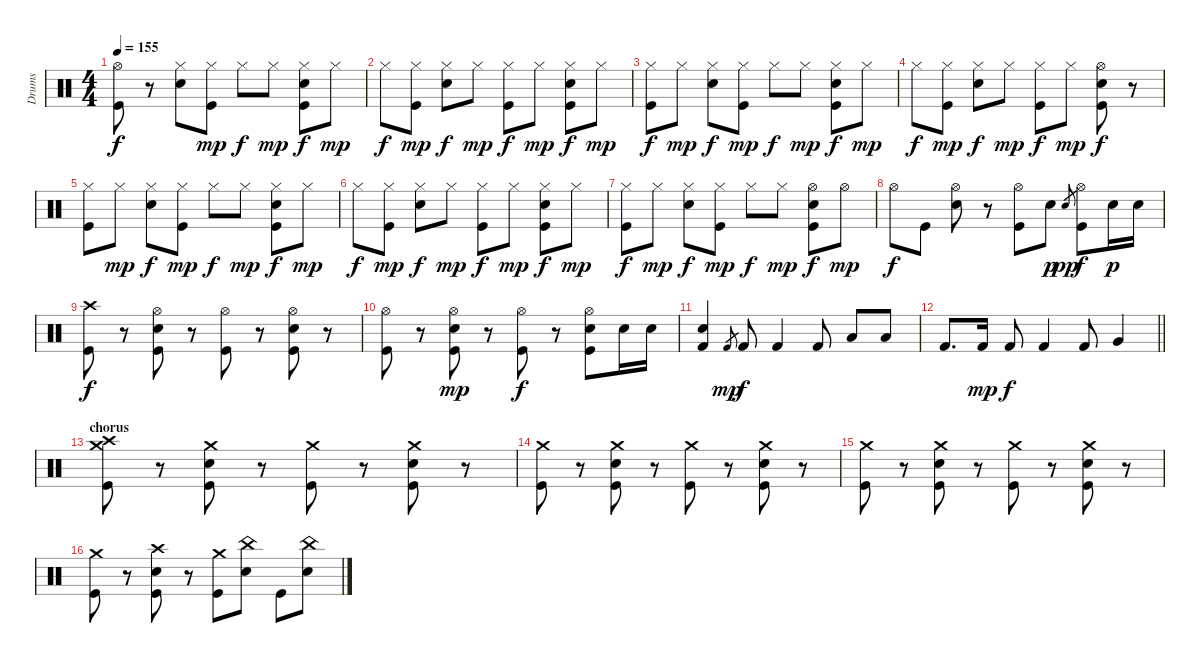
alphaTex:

\track ("Drums" "Drums") {instrument percussion}
\staff {score}
\articulation defaults
\ts (4 4)
\tempo 155
\clef neutral
\ks c
("Hi-Hat (open)" "Kick (hit)").8{dy f} r.8 ("Hi-Hat (closed)" "Electric Snare (hit)").8 ("Hi-Hat (closed)" "Kick (hit)").8{dy mp} "Hi-Hat (closed)".8{dy f} "Hi-Hat (closed)".8{dy mp} ("Hi-Hat (closed)" "Electric Snare (hit)" "Kick (hit)").8{dy f} "Hi-Hat (closed)".8{dy mp} |
"Hi-Hat (closed)".8{dy f} ("Hi-Hat (closed)" "Kick (hit)").8{dy mp} ("Hi-Hat (closed)" "Electric Snare (hit)").8{dy f} "Hi-Hat (closed)".8{dy mp} ("Hi-Hat (closed)" "Kick (hit)").8{dy f} "Hi-Hat (closed)".8{dy mp} ("Hi-Hat (closed)" "Electric Snare (hit)" "Kick (hit)").8{dy f} "Hi-Hat (closed)".8{dy mp} |
("Hi-Hat (closed)" "Kick (hit)").8{dy f} "Hi-Hat (closed)".8{dy mp} ("Hi-Hat (closed)" "Electric Snare (hit)").8{dy f} ("Hi-Hat (closed)" "Kick (hit)").8{dy mp} "Hi-Hat (closed)".8{dy f} "Hi-Hat (closed)".8{dy mp} ("Hi-Hat (closed)" "Electric Snare (hit)" "Kick (hit)").8{dy f} "Hi-Hat (closed)".8{dy mp} |
"Hi-Hat (closed)".8{dy f} ("Hi-Hat (closed)" "Kick (hit)").8{dy mp} ("Hi-Hat (closed)" "Electric Snare (hit)").8{dy f} "Hi-Hat (closed)".8{dy mp} ("Hi-Hat (closed)" "Kick (hit)").8{dy f} "Hi-Hat (closed)".8{dy mp} ("Hi-Hat (open)" "Electric Snare (hit)" "Kick (hit)").8{dy f} r.8 |
("Hi-Hat (closed)" "Kick (hit)").8 "Hi-Hat (closed)".8{dy mp} ("Hi-Hat (closed)" "Electric Snare (hit)").8{dy f} ("Hi-Hat (closed)" "Kick (hit)").8{dy mp} "Hi-Hat (closed)".8{dy f} "Hi-Hat (closed)".8{dy mp} ("Hi-Hat (closed)" "Electric Snare (hit)" "Kick (hit)").8{dy f} "Hi-Hat (closed)".8{dy mp} |
"Hi-Hat (closed)".8{dy f} ("Hi-Hat (closed)" "Kick (hit)").8{dy mp} ("Hi-Hat (closed)" "Electric Snare (hit)").8{dy f} "Hi-Hat (closed)".8{dy mp} ("Hi-Hat (closed)" "Kick (hit)").8{dy f} "Hi-Hat (closed)".8{dy mp} ("Hi-Hat (closed)" "Electric Snare (hit)" "Kick (hit)").8{dy f} "Hi-Hat (closed)".8{dy mp} |
("Hi-Hat (closed)" "Kick (hit)").8{dy f} "Hi-Hat (closed)".8{dy mp} ("Hi-Hat (closed)" "Electric Snare (hit)").8{dy f} ("Hi-Hat (closed)" "Kick (hit)").8{dy mp} "Hi-Hat (closed)".8{dy f} "Hi-Hat (closed)".8{dy mp} ("Hi-Hat (open)" "Electric Snare (hit)" "Kick (hit)").8{dy f} "Hi-Hat (open)".8{dy mp} |
"Hi-Hat (open)".8{dy f} "Kick (hit)".8 ("Hi-Hat (open)" "Electric Snare (hit)").8 r.8 ("Hi-Hat (open)" "Kick (hit)").8 "Electric Snare (hit)".8{dy p} "Electric Snare (hit)".8{gr dy pp} ("Hi-Hat (open)" "Kick (hit)").8{dy f} "Electric Snare (hit)".16{dy p} "Electric Snare (hit)".16 |
("Crash high (hit)" "Kick (hit)").8{dy f} r.8 ("Hi-Hat (open)" "Electric Snare (hit)" "Kick (hit)").8 r.8 ("Hi-Hat (open)" "Kick (hit)").8 r.8 ("Hi-Hat (open)" "Electric Snare (hit)" "Kick (hit)").8 r.8 |
("Hi-Hat (open)" "Kick (hit)").8 r.8 ("Hi-Hat (open)" "Electric Snare (hit)" "Kick (hit)").8{dy mp} r.8 ("Hi-Hat (open)" "Kick (hit)").8{dy f} r.8 ("Hi-Hat (open)" "Electric Snare (hit)" "Kick (hit)").8 "Electric Snare (hit)".16 "Electric Snare (hit)".16 |
("Electric Snare (hit)" "Kick (hit) 2").4 "Kick (hit) 2".8{gr dy mp} "Kick (hit) 2".8{dy f} "Kick (hit) 2".4 "Kick (hit) 2".8 "Low Tom (hit)".8 "Low Floor Tom (hit)".8 |
\barLineRight lightlight "Kick (hit) 2".8{d} "Kick (hit) 2".16{dy mp} "Kick (hit) 2".8{dy f} "Kick (hit) 2".4 "Kick (hit) 2".8 "Very Low Tom (hit)".4
|
\section ("" "chorus")
("Crash high (hit)" "Crash medium (hit)" "Kick (hit)").8{volume 16} r.8 ("Crash medium (hit)" "Electric Snare (hit)" "Kick (hit)").8 r.8 ("Crash medium (hit)" "Kick (hit)").8 r.8 ("Crash medium (hit)" "Electric Snare (hit)" "Kick (hit)").8 r.8 |
("Crash medium (hit)" "Kick (hit)").8 r.8 ("Crash medium (hit)" "Electric Snare (hit)" "Kick (hit)").8 r.8 ("Crash medium (hit)" "Kick (hit)").8 r.8 ("Crash medium (hit)" "Electric Snare (hit)" "Kick (hit)").8 r.8 |
("Crash medium (hit)" "Kick (hit)").8 r.8 ("Crash medium (hit)" "Electric Snare (hit)" "Kick (hit)").8 r.8 ("Crash medium (hit)" "Kick (hit)").8 r.8 ("Crash medium (hit)" "Electric Snare (hit)" "Kick (hit)").8 r.8 |
("Crash medium (hit)" "Kick (hit)").8 r.8 ("Crash high (hit)" "Electric Snare (hit)" "Kick (hit)").8 r.8 ("Crash medium (hit)" "Kick (hit)").8 ("China (hit)" "Electric Snare (hit)").8 "Kick (hit)".8 ("China (hit)" "Electric Snare (hit)").8
